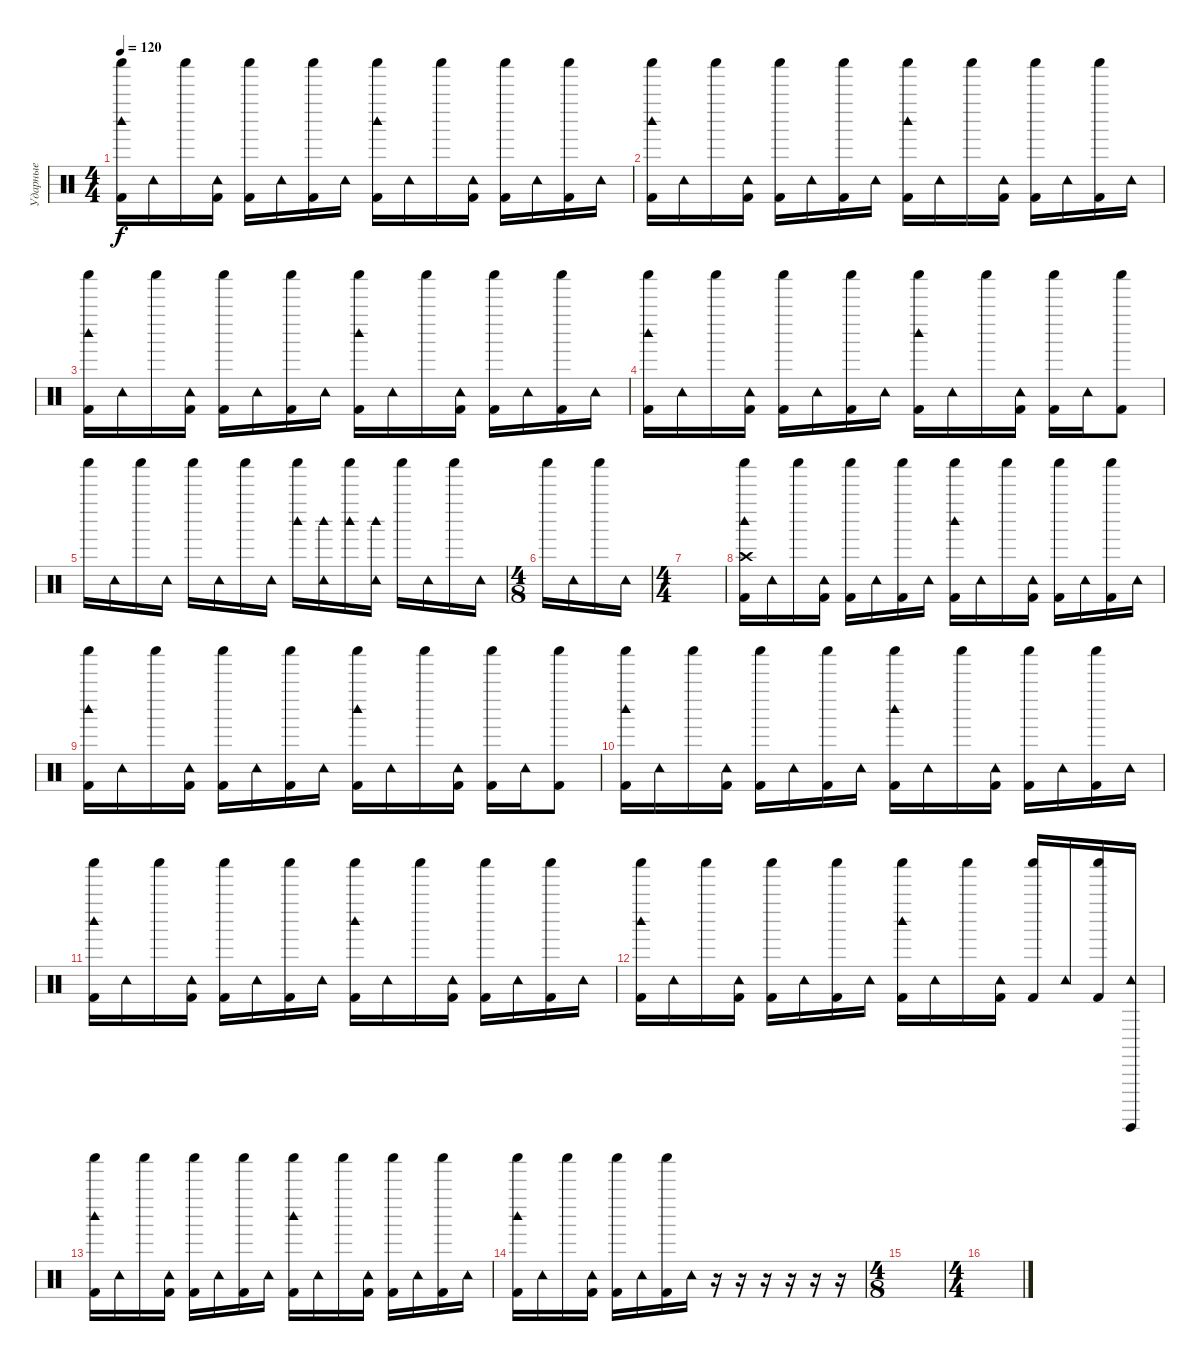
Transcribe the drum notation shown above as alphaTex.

\track ("Ударные" "Ударные") {instrument percussion}
\staff {score}
\articulation defaults
\ts (4 4)
\tempo 120
\clef neutral
\ks c
("Shaker (hit)" "Kick (hit) 2" "Woodblock high (hit)").16{dy f} "Tambourine (hit)".16 "Shaker (hit)".16 ("Tambourine (hit)" "Kick (hit) 2").16 ("Shaker (hit)" "Kick (hit) 2").16 "Tambourine (hit)".16 ("Shaker (hit)" "Kick (hit) 2").16 "Tambourine (hit)".16 ("Shaker (hit)" "Kick (hit) 2" "Woodblock high (hit)").16 "Tambourine (hit)".16 "Shaker (hit)".16 ("Tambourine (hit)" "Kick (hit) 2").16 ("Shaker (hit)" "Kick (hit) 2").16 "Tambourine (hit)".16 ("Shaker (hit)" "Kick (hit) 2").16 "Tambourine (hit)".16 |
("Shaker (hit)" "Kick (hit) 2" "Woodblock high (hit)").16 "Tambourine (hit)".16 "Shaker (hit)".16 ("Tambourine (hit)" "Kick (hit) 2").16 ("Shaker (hit)" "Kick (hit) 2").16 "Tambourine (hit)".16 ("Shaker (hit)" "Kick (hit) 2").16 "Tambourine (hit)".16 ("Shaker (hit)" "Kick (hit) 2" "Woodblock high (hit)").16 "Tambourine (hit)".16 "Shaker (hit)".16 ("Tambourine (hit)" "Kick (hit) 2").16 ("Shaker (hit)" "Kick (hit) 2").16 "Tambourine (hit)".16 ("Shaker (hit)" "Kick (hit) 2").16 "Tambourine (hit)".16 |
("Shaker (hit)" "Kick (hit) 2" "Woodblock high (hit)").16 "Tambourine (hit)".16 "Shaker (hit)".16 ("Tambourine (hit)" "Kick (hit) 2").16 ("Shaker (hit)" "Kick (hit) 2").16 "Tambourine (hit)".16 ("Shaker (hit)" "Kick (hit) 2").16 "Tambourine (hit)".16 ("Shaker (hit)" "Kick (hit) 2" "Woodblock high (hit)").16 "Tambourine (hit)".16 "Shaker (hit)".16 ("Tambourine (hit)" "Kick (hit) 2").16 ("Shaker (hit)" "Kick (hit) 2").16 "Tambourine (hit)".16 ("Shaker (hit)" "Kick (hit) 2").16 "Tambourine (hit)".16 |
("Shaker (hit)" "Kick (hit) 2" "Woodblock high (hit)").16 "Tambourine (hit)".16 "Shaker (hit)".16 ("Tambourine (hit)" "Kick (hit) 2").16 ("Shaker (hit)" "Kick (hit) 2").16 "Tambourine (hit)".16 ("Shaker (hit)" "Kick (hit) 2").16 "Tambourine (hit)".16 ("Shaker (hit)" "Kick (hit) 2" "Woodblock high (hit)").16 "Tambourine (hit)".16 "Shaker (hit)".16 ("Tambourine (hit)" "Kick (hit) 2").16 ("Shaker (hit)" "Kick (hit) 2").16 "Tambourine (hit)".16 ("Shaker (hit)" "Kick (hit) 2").8 |
"Shaker (hit)".16 "Tambourine (hit)".16 "Shaker (hit)".16 "Tambourine (hit)".16 "Shaker (hit)".16 "Tambourine (hit)".16 "Shaker (hit)".16 "Tambourine (hit)".16 ("Shaker (hit)" "Woodblock high (hit)").16 ("Tambourine (hit)" "Woodblock high (hit)").16 ("Shaker (hit)" "Woodblock high (hit)").16 ("Tambourine (hit)" "Woodblock high (hit)").16 "Shaker (hit)".16 "Tambourine (hit)".16 "Shaker (hit)".16 "Tambourine (hit)".16 |
\ts (4 8)
"Shaker (hit)".16 "Tambourine (hit)".16 "Shaker (hit)".16 "Tambourine (hit)".16 |
\ts (4 4)
|
("Shaker (hit)" "Kick (hit) 2" "Woodblock high (hit)" "Crash high (hit)").16 "Tambourine (hit)".16 "Shaker (hit)".16 ("Tambourine (hit)" "Kick (hit) 2").16 ("Shaker (hit)" "Kick (hit) 2").16 "Tambourine (hit)".16 ("Shaker (hit)" "Kick (hit) 2").16 "Tambourine (hit)".16 ("Shaker (hit)" "Kick (hit) 2" "Woodblock high (hit)").16 "Tambourine (hit)".16 "Shaker (hit)".16 ("Tambourine (hit)" "Kick (hit) 2").16 ("Shaker (hit)" "Kick (hit) 2").16 "Tambourine (hit)".16 ("Shaker (hit)" "Kick (hit) 2").16 "Tambourine (hit)".16 |
("Shaker (hit)" "Kick (hit) 2" "Woodblock high (hit)").16 "Tambourine (hit)".16 "Shaker (hit)".16 ("Tambourine (hit)" "Kick (hit) 2").16 ("Shaker (hit)" "Kick (hit) 2").16 "Tambourine (hit)".16 ("Shaker (hit)" "Kick (hit) 2").16 "Tambourine (hit)".16 ("Shaker (hit)" "Kick (hit) 2" "Woodblock high (hit)").16 "Tambourine (hit)".16 "Shaker (hit)".16 ("Tambourine (hit)" "Kick (hit) 2").16 ("Shaker (hit)" "Kick (hit) 2").16 "Tambourine (hit)".16 ("Shaker (hit)" "Kick (hit) 2").8 |
("Shaker (hit)" "Kick (hit) 2" "Woodblock high (hit)").16 "Tambourine (hit)".16 "Shaker (hit)".16 ("Tambourine (hit)" "Kick (hit) 2").16 ("Shaker (hit)" "Kick (hit) 2").16 "Tambourine (hit)".16 ("Shaker (hit)" "Kick (hit) 2").16 "Tambourine (hit)".16 ("Shaker (hit)" "Kick (hit) 2" "Woodblock high (hit)").16 "Tambourine (hit)".16 "Shaker (hit)".16 ("Tambourine (hit)" "Kick (hit) 2").16 ("Shaker (hit)" "Kick (hit) 2").16 "Tambourine (hit)".16 ("Shaker (hit)" "Kick (hit) 2").16 "Tambourine (hit)".16 |
("Shaker (hit)" "Kick (hit) 2" "Woodblock high (hit)").16 "Tambourine (hit)".16 "Shaker (hit)".16 ("Tambourine (hit)" "Kick (hit) 2").16 ("Shaker (hit)" "Kick (hit) 2").16 "Tambourine (hit)".16 ("Shaker (hit)" "Kick (hit) 2").16 "Tambourine (hit)".16 ("Shaker (hit)" "Kick (hit) 2" "Woodblock high (hit)").16 "Tambourine (hit)".16 "Shaker (hit)".16 ("Tambourine (hit)" "Kick (hit) 2").16 ("Shaker (hit)" "Kick (hit) 2").16 "Tambourine (hit)".16 ("Shaker (hit)" "Kick (hit) 2").16 "Tambourine (hit)".16 |
("Shaker (hit)" "Kick (hit) 2" "Woodblock high (hit)").16 "Tambourine (hit)".16 "Shaker (hit)".16 ("Tambourine (hit)" "Kick (hit) 2").16 ("Shaker (hit)" "Kick (hit) 2").16 "Tambourine (hit)".16 ("Shaker (hit)" "Kick (hit) 2").16 "Tambourine (hit)".16 ("Shaker (hit)" "Kick (hit) 2" "Woodblock high (hit)").16 "Tambourine (hit)".16 "Shaker (hit)".16 ("Tambourine (hit)" "Kick (hit) 2").16 ("Shaker (hit)" "Kick (hit) 2").16 "Tambourine (hit)".16 ("Shaker (hit)" "Kick (hit) 2").16 ("Tambourine (hit)" "Surdo (hit)").16 |
("Shaker (hit)" "Kick (hit) 2" "Woodblock high (hit)").16 "Tambourine (hit)".16 "Shaker (hit)".16 ("Tambourine (hit)" "Kick (hit) 2").16 ("Shaker (hit)" "Kick (hit) 2").16 "Tambourine (hit)".16 ("Shaker (hit)" "Kick (hit) 2").16 "Tambourine (hit)".16 ("Shaker (hit)" "Kick (hit) 2" "Woodblock high (hit)").16 "Tambourine (hit)".16 "Shaker (hit)".16 ("Tambourine (hit)" "Kick (hit) 2").16 ("Shaker (hit)" "Kick (hit) 2").16 "Tambourine (hit)".16 ("Shaker (hit)" "Kick (hit) 2").16 "Tambourine (hit)".16 |
("Shaker (hit)" "Kick (hit) 2" "Woodblock high (hit)").16 "Tambourine (hit)".16 "Shaker (hit)".16 ("Tambourine (hit)" "Kick (hit) 2").16 ("Shaker (hit)" "Kick (hit) 2").16 "Tambourine (hit)".16 ("Shaker (hit)" "Kick (hit) 2").16 "Tambourine (hit)".16 r.16 r.16 r.16 r.16 r.16 r.16 |
\ts (4 8)
|
\ts (4 4)
